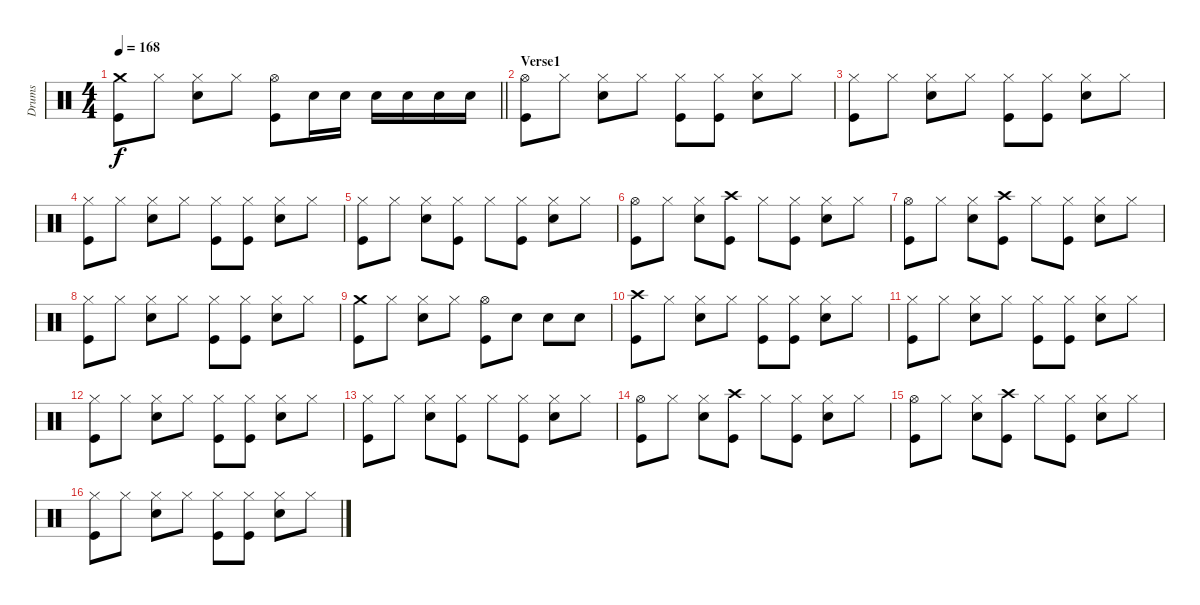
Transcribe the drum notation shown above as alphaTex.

\track ("Drums" "Drums") {instrument percussion}
\staff {score}
\articulation defaults
\ts (4 4)
\tempo 168
\clef neutral
\barLineRight lightlight
\ks c
("Crash medium (hit)" "Kick (hit)").8{dy f} "Hi-Hat (closed)".8 ("Hi-Hat (closed)" "Snare (hit) 2").8 "Hi-Hat (closed)".8 ("Hi-Hat (open)" "Kick (hit)").8 "Snare (hit) 2".16 "Snare (hit) 2".16 "Snare (hit) 2".16 "Snare (hit) 2".16 "Snare (hit) 2".16 "Snare (hit) 2".16 |
\section ("" "Verse1")
("Hi-Hat (open)" "Kick (hit)").8 "Hi-Hat (closed)".8 ("Hi-Hat (closed)" "Snare (hit) 2").8 "Hi-Hat (closed)".8 ("Hi-Hat (closed)" "Kick (hit)").8 ("Hi-Hat (closed)" "Kick (hit)").8 ("Hi-Hat (closed)" "Snare (hit) 2").8 "Hi-Hat (closed)".8 |
("Hi-Hat (closed)" "Kick (hit)").8 "Hi-Hat (closed)".8 ("Hi-Hat (closed)" "Snare (hit) 2").8 "Hi-Hat (closed)".8 ("Hi-Hat (closed)" "Kick (hit)").8 ("Hi-Hat (closed)" "Kick (hit)").8 ("Hi-Hat (closed)" "Snare (hit) 2").8 "Hi-Hat (closed)".8 |
("Hi-Hat (closed)" "Kick (hit)").8 "Hi-Hat (closed)".8 ("Hi-Hat (closed)" "Snare (hit) 2").8 "Hi-Hat (closed)".8 ("Hi-Hat (closed)" "Kick (hit)").8 ("Hi-Hat (closed)" "Kick (hit)").8 ("Hi-Hat (closed)" "Snare (hit) 2").8 "Hi-Hat (closed)".8 |
("Hi-Hat (closed)" "Kick (hit)").8 "Hi-Hat (closed)".8 ("Hi-Hat (closed)" "Snare (hit) 2").8 ("Hi-Hat (closed)" "Kick (hit)").8 "Hi-Hat (closed)".8 ("Hi-Hat (closed)" "Kick (hit)").8 ("Hi-Hat (closed)" "Snare (hit) 2").8 "Hi-Hat (closed)".8 |
("Hi-Hat (open)" "Kick (hit)").8 "Hi-Hat (closed)".8 ("Hi-Hat (closed)" "Snare (hit) 2").8 ("Crash high (hit)" "Kick (hit)").8 "Hi-Hat (closed)".8 ("Hi-Hat (closed)" "Kick (hit)").8 ("Hi-Hat (closed)" "Snare (hit) 2").8 "Hi-Hat (closed)".8 |
("Hi-Hat (open)" "Kick (hit)").8 "Hi-Hat (closed)".8 ("Hi-Hat (closed)" "Snare (hit) 2").8 ("Crash high (hit)" "Kick (hit)").8 "Hi-Hat (closed)".8 ("Hi-Hat (closed)" "Kick (hit)").8 ("Hi-Hat (closed)" "Snare (hit) 2").8 "Hi-Hat (closed)".8 |
("Hi-Hat (closed)" "Kick (hit)").8 "Hi-Hat (closed)".8 ("Hi-Hat (closed)" "Snare (hit) 2").8 "Hi-Hat (closed)".8 ("Hi-Hat (closed)" "Kick (hit)").8 ("Hi-Hat (closed)" "Kick (hit)").8 ("Hi-Hat (closed)" "Snare (hit) 2").8 "Hi-Hat (closed)".8 |
("Crash medium (hit)" "Kick (hit)").8 "Hi-Hat (closed)".8 ("Hi-Hat (closed)" "Snare (hit) 2").8 "Hi-Hat (closed)".8 ("Hi-Hat (open)" "Kick (hit)").8 "Snare (hit) 2".8 "Snare (hit) 2".8 "Snare (hit) 2".8 |
("Crash high (hit)" "Kick (hit)").8 "Hi-Hat (closed)".8 ("Hi-Hat (closed)" "Snare (hit) 2").8 "Hi-Hat (closed)".8 ("Hi-Hat (closed)" "Kick (hit)").8 ("Hi-Hat (closed)" "Kick (hit)").8 ("Hi-Hat (closed)" "Snare (hit) 2").8 "Hi-Hat (closed)".8 |
("Hi-Hat (closed)" "Kick (hit)").8 "Hi-Hat (closed)".8 ("Hi-Hat (closed)" "Snare (hit) 2").8 "Hi-Hat (closed)".8 ("Hi-Hat (closed)" "Kick (hit)").8 ("Hi-Hat (closed)" "Kick (hit)").8 ("Hi-Hat (closed)" "Snare (hit) 2").8 "Hi-Hat (closed)".8 |
("Hi-Hat (closed)" "Kick (hit)").8 "Hi-Hat (closed)".8 ("Hi-Hat (closed)" "Snare (hit) 2").8 "Hi-Hat (closed)".8 ("Hi-Hat (closed)" "Kick (hit)").8 ("Hi-Hat (closed)" "Kick (hit)").8 ("Hi-Hat (closed)" "Snare (hit) 2").8 "Hi-Hat (closed)".8 |
("Hi-Hat (closed)" "Kick (hit)").8 "Hi-Hat (closed)".8 ("Hi-Hat (closed)" "Snare (hit) 2").8 ("Hi-Hat (closed)" "Kick (hit)").8 "Hi-Hat (closed)".8 ("Hi-Hat (closed)" "Kick (hit)").8 ("Hi-Hat (closed)" "Snare (hit) 2").8 "Hi-Hat (closed)".8 |
("Hi-Hat (open)" "Kick (hit)").8 "Hi-Hat (closed)".8 ("Hi-Hat (closed)" "Snare (hit) 2").8 ("Crash high (hit)" "Kick (hit)").8 "Hi-Hat (closed)".8 ("Hi-Hat (closed)" "Kick (hit)").8 ("Hi-Hat (closed)" "Snare (hit) 2").8 "Hi-Hat (closed)".8 |
("Hi-Hat (open)" "Kick (hit)").8 "Hi-Hat (closed)".8 ("Hi-Hat (closed)" "Snare (hit) 2").8 ("Crash high (hit)" "Kick (hit)").8 "Hi-Hat (closed)".8 ("Hi-Hat (closed)" "Kick (hit)").8 ("Hi-Hat (closed)" "Snare (hit) 2").8 "Hi-Hat (closed)".8 |
("Hi-Hat (closed)" "Kick (hit)").8 "Hi-Hat (closed)".8 ("Hi-Hat (closed)" "Snare (hit) 2").8 "Hi-Hat (closed)".8 ("Hi-Hat (closed)" "Kick (hit)").8 ("Hi-Hat (closed)" "Kick (hit)").8 ("Hi-Hat (closed)" "Snare (hit) 2").8 "Hi-Hat (closed)".8
